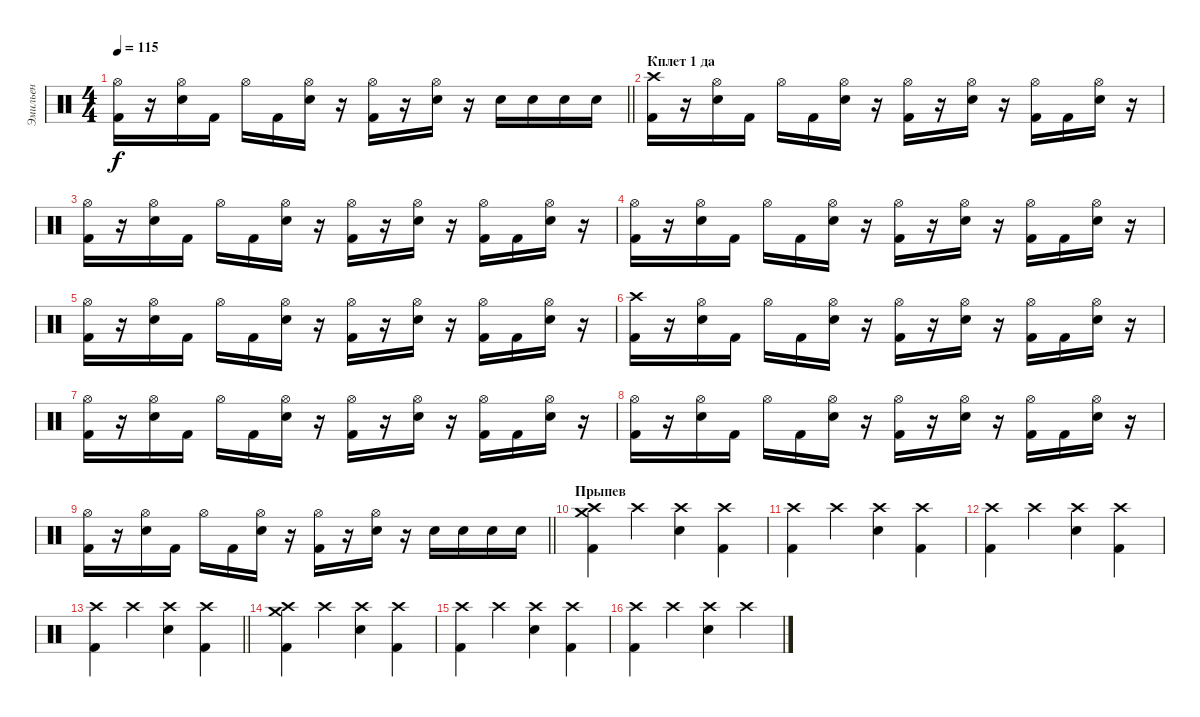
\track ("Эмильен" "Эмильен") {instrument percussion}
\staff {score}
\articulation defaults
\ts (4 4)
\tempo 115
\clef neutral
\barLineRight lightlight
\ks c
("Hi-Hat (open)" "Kick (hit) 2").16{dy f} r.16 ("Hi-Hat (open)" "Snare (hit) 2").16 "Kick (hit) 2".16 "Hi-Hat (open)".16 "Kick (hit) 2".16 ("Hi-Hat (open)" "Snare (hit) 2").16 r.16 ("Hi-Hat (open)" "Kick (hit) 2").16 r.16 ("Hi-Hat (open)" "Snare (hit) 2").16 r.16 "Snare (hit) 2".16 "Snare (hit) 2".16 "Snare (hit) 2".16 "Snare (hit) 2".16 |
\section ("" "Кплет 1 да")
("Crash high (hit)" "Kick (hit) 2").16 r.16 ("Hi-Hat (open)" "Snare (hit) 2").16 "Kick (hit) 2".16 "Hi-Hat (open)".16 "Kick (hit) 2".16 ("Hi-Hat (open)" "Snare (hit) 2").16 r.16 ("Hi-Hat (open)" "Kick (hit) 2").16 r.16 ("Hi-Hat (open)" "Snare (hit) 2").16 r.16 ("Hi-Hat (open)" "Kick (hit) 2").16 "Kick (hit) 2".16 ("Hi-Hat (open)" "Snare (hit) 2").16 r.16 |
("Hi-Hat (open)" "Kick (hit) 2").16 r.16 ("Hi-Hat (open)" "Snare (hit) 2").16 "Kick (hit) 2".16 "Hi-Hat (open)".16 "Kick (hit) 2".16 ("Hi-Hat (open)" "Snare (hit) 2").16 r.16 ("Hi-Hat (open)" "Kick (hit) 2").16 r.16 ("Hi-Hat (open)" "Snare (hit) 2").16 r.16 ("Hi-Hat (open)" "Kick (hit) 2").16 "Kick (hit) 2".16 ("Hi-Hat (open)" "Snare (hit) 2").16 r.16 |
("Hi-Hat (open)" "Kick (hit) 2").16 r.16 ("Hi-Hat (open)" "Snare (hit) 2").16 "Kick (hit) 2".16 "Hi-Hat (open)".16 "Kick (hit) 2".16 ("Hi-Hat (open)" "Snare (hit) 2").16 r.16 ("Hi-Hat (open)" "Kick (hit) 2").16 r.16 ("Hi-Hat (open)" "Snare (hit) 2").16 r.16 ("Hi-Hat (open)" "Kick (hit) 2").16 "Kick (hit) 2".16 ("Hi-Hat (open)" "Snare (hit) 2").16 r.16 |
("Hi-Hat (open)" "Kick (hit) 2").16 r.16 ("Hi-Hat (open)" "Snare (hit) 2").16 "Kick (hit) 2".16 "Hi-Hat (open)".16 "Kick (hit) 2".16 ("Hi-Hat (open)" "Snare (hit) 2").16 r.16 ("Hi-Hat (open)" "Kick (hit) 2").16 r.16 ("Hi-Hat (open)" "Snare (hit) 2").16 r.16 ("Hi-Hat (open)" "Kick (hit) 2").16 "Kick (hit) 2".16 ("Hi-Hat (open)" "Snare (hit) 2").16 r.16 |
("Crash high (hit)" "Kick (hit) 2").16 r.16 ("Hi-Hat (open)" "Snare (hit) 2").16 "Kick (hit) 2".16 "Hi-Hat (open)".16 "Kick (hit) 2".16 ("Hi-Hat (open)" "Snare (hit) 2").16 r.16 ("Hi-Hat (open)" "Kick (hit) 2").16 r.16 ("Hi-Hat (open)" "Snare (hit) 2").16 r.16 ("Hi-Hat (open)" "Kick (hit) 2").16 "Kick (hit) 2".16 ("Hi-Hat (open)" "Snare (hit) 2").16 r.16 |
("Hi-Hat (open)" "Kick (hit) 2").16 r.16 ("Hi-Hat (open)" "Snare (hit) 2").16 "Kick (hit) 2".16 "Hi-Hat (open)".16 "Kick (hit) 2".16 ("Hi-Hat (open)" "Snare (hit) 2").16 r.16 ("Hi-Hat (open)" "Kick (hit) 2").16 r.16 ("Hi-Hat (open)" "Snare (hit) 2").16 r.16 ("Hi-Hat (open)" "Kick (hit) 2").16 "Kick (hit) 2".16 ("Hi-Hat (open)" "Snare (hit) 2").16 r.16 |
("Hi-Hat (open)" "Kick (hit) 2").16 r.16 ("Hi-Hat (open)" "Snare (hit) 2").16 "Kick (hit) 2".16 "Hi-Hat (open)".16 "Kick (hit) 2".16 ("Hi-Hat (open)" "Snare (hit) 2").16 r.16 ("Hi-Hat (open)" "Kick (hit) 2").16 r.16 ("Hi-Hat (open)" "Snare (hit) 2").16 r.16 ("Hi-Hat (open)" "Kick (hit) 2").16 "Kick (hit) 2".16 ("Hi-Hat (open)" "Snare (hit) 2").16 r.16 |
\barLineRight lightlight
("Hi-Hat (open)" "Kick (hit) 2").16 r.16 ("Hi-Hat (open)" "Snare (hit) 2").16 "Kick (hit) 2".16 "Hi-Hat (open)".16 "Kick (hit) 2".16 ("Hi-Hat (open)" "Snare (hit) 2").16 r.16 ("Hi-Hat (open)" "Kick (hit) 2").16 r.16 ("Hi-Hat (open)" "Snare (hit) 2").16 r.16 "Snare (hit) 2".16 "Snare (hit) 2".16 "Snare (hit) 2".16 "Snare (hit) 2".16 |
\section ("" "Прыпев")
("Crash high (hit)" "Crash medium (hit)" "Kick (hit) 2").4 "Crash high (hit)".4 ("Crash high (hit)" "Snare (hit) 2").4 ("Crash high (hit)" "Kick (hit) 2").4 |
("Crash high (hit)" "Kick (hit) 2").4 "Crash high (hit)".4 ("Crash high (hit)" "Snare (hit) 2").4 ("Crash high (hit)" "Kick (hit) 2").4 |
("Crash high (hit)" "Kick (hit) 2").4 "Crash high (hit)".4 ("Crash high (hit)" "Snare (hit) 2").4 ("Crash high (hit)" "Kick (hit) 2").4 |
\barLineRight lightlight
("Crash high (hit)" "Kick (hit) 2").4 "Crash high (hit)".4 ("Crash high (hit)" "Snare (hit) 2").4 ("Crash high (hit)" "Kick (hit) 2").4 |
("Crash high (hit)" "Crash medium (hit)" "Kick (hit) 2").4 "Crash high (hit)".4 ("Crash high (hit)" "Snare (hit) 2").4 ("Crash high (hit)" "Kick (hit) 2").4 |
("Crash high (hit)" "Kick (hit) 2").4 "Crash high (hit)".4 ("Crash high (hit)" "Snare (hit) 2").4 ("Crash high (hit)" "Kick (hit) 2").4 |
("Crash high (hit)" "Kick (hit) 2").4 "Crash high (hit)".4 ("Crash high (hit)" "Snare (hit) 2").4 "Crash high (hit)".4
